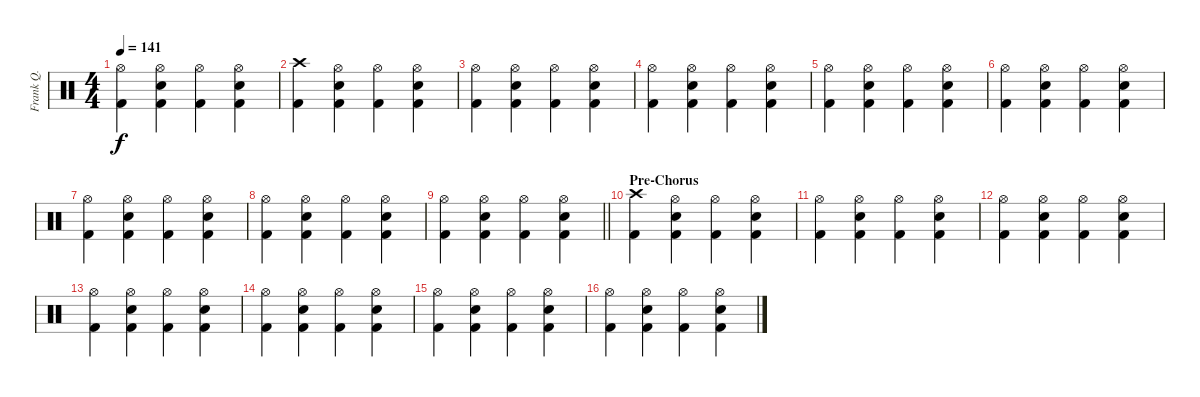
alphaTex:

\track ("Frank Q." "Frank Q.") {instrument percussion}
\staff {score}
\articulation defaults
\ts (4 4)
\tempo 141
\clef neutral
\ks c
("Hi-Hat (open)" "Kick (hit) 2").4{dy f} ("Hi-Hat (open)" "Electric Snare (hit)" "Kick (hit) 2").4 ("Hi-Hat (open)" "Kick (hit) 2").4 ("Hi-Hat (open)" "Electric Snare (hit)" "Kick (hit) 2").4 |
("Crash high (hit)" "Kick (hit) 2").4 ("Hi-Hat (open)" "Electric Snare (hit)" "Kick (hit) 2").4 ("Hi-Hat (open)" "Kick (hit) 2").4 ("Hi-Hat (open)" "Electric Snare (hit)" "Kick (hit) 2").4 |
("Hi-Hat (open)" "Kick (hit) 2").4 ("Hi-Hat (open)" "Electric Snare (hit)" "Kick (hit) 2").4 ("Hi-Hat (open)" "Kick (hit) 2").4 ("Hi-Hat (open)" "Electric Snare (hit)" "Kick (hit) 2").4 |
("Hi-Hat (open)" "Kick (hit) 2").4 ("Hi-Hat (open)" "Electric Snare (hit)" "Kick (hit) 2").4 ("Hi-Hat (open)" "Kick (hit) 2").4 ("Hi-Hat (open)" "Electric Snare (hit)" "Kick (hit) 2").4 |
("Hi-Hat (open)" "Kick (hit) 2").4 ("Hi-Hat (open)" "Electric Snare (hit)" "Kick (hit) 2").4 ("Hi-Hat (open)" "Kick (hit) 2").4 ("Hi-Hat (open)" "Electric Snare (hit)" "Kick (hit) 2").4 |
("Hi-Hat (open)" "Kick (hit) 2").4 ("Hi-Hat (open)" "Electric Snare (hit)" "Kick (hit) 2").4 ("Hi-Hat (open)" "Kick (hit) 2").4 ("Hi-Hat (open)" "Electric Snare (hit)" "Kick (hit) 2").4 |
("Hi-Hat (open)" "Kick (hit) 2").4 ("Hi-Hat (open)" "Electric Snare (hit)" "Kick (hit) 2").4 ("Hi-Hat (open)" "Kick (hit) 2").4 ("Hi-Hat (open)" "Electric Snare (hit)" "Kick (hit) 2").4 |
("Hi-Hat (open)" "Kick (hit) 2").4 ("Hi-Hat (open)" "Electric Snare (hit)" "Kick (hit) 2").4 ("Hi-Hat (open)" "Kick (hit) 2").4 ("Hi-Hat (open)" "Electric Snare (hit)" "Kick (hit) 2").4 |
\barLineRight lightlight
("Hi-Hat (open)" "Kick (hit) 2").4 ("Hi-Hat (open)" "Electric Snare (hit)" "Kick (hit) 2").4 ("Hi-Hat (open)" "Kick (hit) 2").4 ("Hi-Hat (open)" "Electric Snare (hit)" "Kick (hit) 2").4 |
\section ("" "Pre-Chorus")
("Crash high (hit)" "Kick (hit) 2").4 ("Hi-Hat (open)" "Electric Snare (hit)" "Kick (hit) 2").4 ("Hi-Hat (open)" "Kick (hit) 2").4 ("Hi-Hat (open)" "Electric Snare (hit)" "Kick (hit) 2").4 |
("Hi-Hat (open)" "Kick (hit) 2").4 ("Hi-Hat (open)" "Electric Snare (hit)" "Kick (hit) 2").4 ("Hi-Hat (open)" "Kick (hit) 2").4 ("Hi-Hat (open)" "Electric Snare (hit)" "Kick (hit) 2").4 |
("Hi-Hat (open)" "Kick (hit) 2").4 ("Hi-Hat (open)" "Electric Snare (hit)" "Kick (hit) 2").4 ("Hi-Hat (open)" "Kick (hit) 2").4 ("Hi-Hat (open)" "Electric Snare (hit)" "Kick (hit) 2").4 |
("Hi-Hat (open)" "Kick (hit) 2").4 ("Hi-Hat (open)" "Electric Snare (hit)" "Kick (hit) 2").4 ("Hi-Hat (open)" "Kick (hit) 2").4 ("Hi-Hat (open)" "Electric Snare (hit)" "Kick (hit) 2").4 |
("Hi-Hat (open)" "Kick (hit) 2").4 ("Hi-Hat (open)" "Electric Snare (hit)" "Kick (hit) 2").4 ("Hi-Hat (open)" "Kick (hit) 2").4 ("Hi-Hat (open)" "Electric Snare (hit)" "Kick (hit) 2").4 |
("Hi-Hat (open)" "Kick (hit) 2").4 ("Hi-Hat (open)" "Electric Snare (hit)" "Kick (hit) 2").4 ("Hi-Hat (open)" "Kick (hit) 2").4 ("Hi-Hat (open)" "Electric Snare (hit)" "Kick (hit) 2").4 |
("Hi-Hat (open)" "Kick (hit) 2").4 ("Hi-Hat (open)" "Electric Snare (hit)" "Kick (hit) 2").4 ("Hi-Hat (open)" "Kick (hit) 2").4 ("Hi-Hat (open)" "Electric Snare (hit)" "Kick (hit) 2").4
